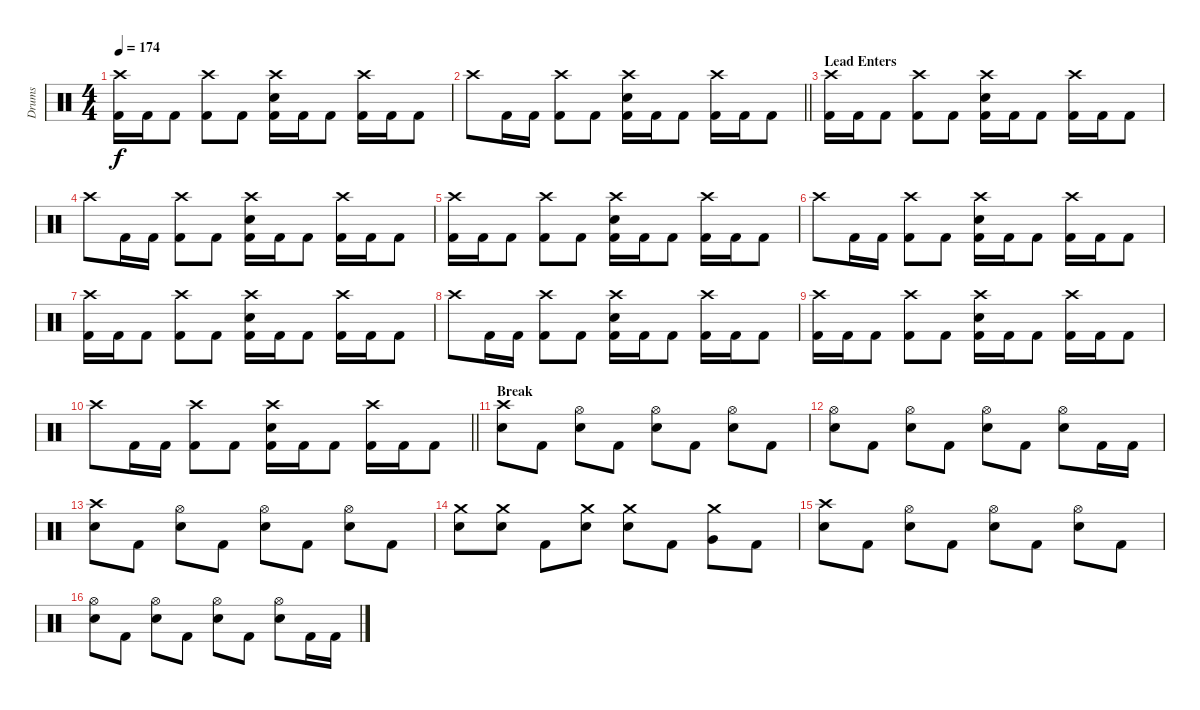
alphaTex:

\track ("Drums" "Drums") {instrument percussion}
\staff {score}
\articulation defaults
\ts (4 4)
\tempo 174
\clef neutral
\ks c
("Crash high (hit)" "Kick (hit) 2").16{dy f} "Kick (hit) 2".16 "Kick (hit) 2".8 ("Crash high (hit)" "Kick (hit) 2").8 "Kick (hit) 2".8 ("Crash high (hit)" "Electric Snare (hit)" "Kick (hit) 2").16 "Kick (hit) 2".16 "Kick (hit) 2".8 ("Crash high (hit)" "Kick (hit) 2").16 "Kick (hit) 2".16 "Kick (hit) 2".8 |
\barLineRight lightlight "Crash high (hit)".8 "Kick (hit) 2".16 "Kick (hit) 2".16
("Crash high (hit)" "Kick (hit) 2").8 "Kick (hit) 2".8 ("Crash high (hit)" "Electric Snare (hit)" "Kick (hit) 2").16 "Kick (hit) 2".16 "Kick (hit) 2".8 ("Crash high (hit)" "Kick (hit) 2").16 "Kick (hit) 2".16 "Kick (hit) 2".8 |
\section ("" "Lead Enters")
("Crash high (hit)" "Kick (hit) 2").16 "Kick (hit) 2".16 "Kick (hit) 2".8 ("Crash high (hit)" "Kick (hit) 2").8 "Kick (hit) 2".8 ("Crash high (hit)" "Electric Snare (hit)" "Kick (hit) 2").16 "Kick (hit) 2".16 "Kick (hit) 2".8 ("Crash high (hit)" "Kick (hit) 2").16 "Kick (hit) 2".16 "Kick (hit) 2".8 |
"Crash high (hit)".8 "Kick (hit) 2".16 "Kick (hit) 2".16 ("Crash high (hit)" "Kick (hit) 2").8 "Kick (hit) 2".8 ("Crash high (hit)" "Electric Snare (hit)" "Kick (hit) 2").16 "Kick (hit) 2".16 "Kick (hit) 2".8 ("Crash high (hit)" "Kick (hit) 2").16 "Kick (hit) 2".16 "Kick (hit) 2".8 |
("Crash high (hit)" "Kick (hit) 2").16 "Kick (hit) 2".16 "Kick (hit) 2".8 ("Crash high (hit)" "Kick (hit) 2").8 "Kick (hit) 2".8 ("Crash high (hit)" "Electric Snare (hit)" "Kick (hit) 2").16 "Kick (hit) 2".16 "Kick (hit) 2".8 ("Crash high (hit)" "Kick (hit) 2").16 "Kick (hit) 2".16 "Kick (hit) 2".8 |
"Crash high (hit)".8 "Kick (hit) 2".16 "Kick (hit) 2".16 ("Crash high (hit)" "Kick (hit) 2").8 "Kick (hit) 2".8 ("Crash high (hit)" "Electric Snare (hit)" "Kick (hit) 2").16 "Kick (hit) 2".16 "Kick (hit) 2".8 ("Crash high (hit)" "Kick (hit) 2").16 "Kick (hit) 2".16 "Kick (hit) 2".8 |
("Crash high (hit)" "Kick (hit) 2").16 "Kick (hit) 2".16 "Kick (hit) 2".8 ("Crash high (hit)" "Kick (hit) 2").8 "Kick (hit) 2".8 ("Crash high (hit)" "Electric Snare (hit)" "Kick (hit) 2").16 "Kick (hit) 2".16 "Kick (hit) 2".8 ("Crash high (hit)" "Kick (hit) 2").16 "Kick (hit) 2".16 "Kick (hit) 2".8 |
"Crash high (hit)".8 "Kick (hit) 2".16 "Kick (hit) 2".16 ("Crash high (hit)" "Kick (hit) 2").8 "Kick (hit) 2".8 ("Crash high (hit)" "Electric Snare (hit)" "Kick (hit) 2").16 "Kick (hit) 2".16 "Kick (hit) 2".8 ("Crash high (hit)" "Kick (hit) 2").16 "Kick (hit) 2".16 "Kick (hit) 2".8 |
("Crash high (hit)" "Kick (hit) 2").16 "Kick (hit) 2".16 "Kick (hit) 2".8 ("Crash high (hit)" "Kick (hit) 2").8 "Kick (hit) 2".8 ("Crash high (hit)" "Electric Snare (hit)" "Kick (hit) 2").16 "Kick (hit) 2".16 "Kick (hit) 2".8 ("Crash high (hit)" "Kick (hit) 2").16 "Kick (hit) 2".16 "Kick (hit) 2".8 |
\barLineRight lightlight "Crash high (hit)".8 "Kick (hit) 2".16 "Kick (hit) 2".16
("Crash high (hit)" "Kick (hit) 2").8 "Kick (hit) 2".8 ("Crash high (hit)" "Electric Snare (hit)" "Kick (hit) 2").16 "Kick (hit) 2".16 "Kick (hit) 2".8 ("Crash high (hit)" "Kick (hit) 2").16 "Kick (hit) 2".16 "Kick (hit) 2".8 |
\section ("" "Break")
("Crash high (hit)" "Electric Snare (hit)").8{volume 8} "Kick (hit) 2".8 ("Hi-Hat (open)" "Electric Snare (hit)").8 "Kick (hit) 2".8 ("Hi-Hat (open)" "Electric Snare (hit)").8 "Kick (hit) 2".8 ("Hi-Hat (open)" "Electric Snare (hit)").8 "Kick (hit) 2".8 |
("Hi-Hat (open)" "Electric Snare (hit)").8 "Kick (hit) 2".8 ("Hi-Hat (open)" "Electric Snare (hit)").8 "Kick (hit) 2".8 ("Hi-Hat (open)" "Electric Snare (hit)").8 "Kick (hit) 2".8 ("Hi-Hat (open)" "Electric Snare (hit)").8 "Kick (hit) 2".16 "Kick (hit) 2".16 |
("Crash high (hit)" "Electric Snare (hit)").8 "Kick (hit) 2".8 ("Hi-Hat (open)" "Electric Snare (hit)").8 "Kick (hit) 2".8 ("Hi-Hat (open)" "Electric Snare (hit)").8 "Kick (hit) 2".8 ("Hi-Hat (open)" "Electric Snare (hit)").8 "Kick (hit) 2".8 |
("Crash medium (hit)" "Electric Snare (hit)").8 ("Crash medium (hit)" "Electric Snare (hit)").8 "Kick (hit) 2".8 ("Crash medium (hit)" "Electric Snare (hit)").8 ("Crash medium (hit)" "Electric Snare (hit)").8 "Kick (hit) 2".8 ("Crash medium (hit)" "Very Low Tom (hit)").8 "Kick (hit) 2".8 |
("Crash high (hit)" "Electric Snare (hit)").8 "Kick (hit) 2".8 ("Hi-Hat (open)" "Electric Snare (hit)").8 "Kick (hit) 2".8 ("Hi-Hat (open)" "Electric Snare (hit)").8 "Kick (hit) 2".8 ("Hi-Hat (open)" "Electric Snare (hit)").8 "Kick (hit) 2".8 |
("Hi-Hat (open)" "Electric Snare (hit)").8 "Kick (hit) 2".8 ("Hi-Hat (open)" "Electric Snare (hit)").8 "Kick (hit) 2".8 ("Hi-Hat (open)" "Electric Snare (hit)").8 "Kick (hit) 2".8 ("Hi-Hat (open)" "Electric Snare (hit)").8 "Kick (hit) 2".16 "Kick (hit) 2".16
